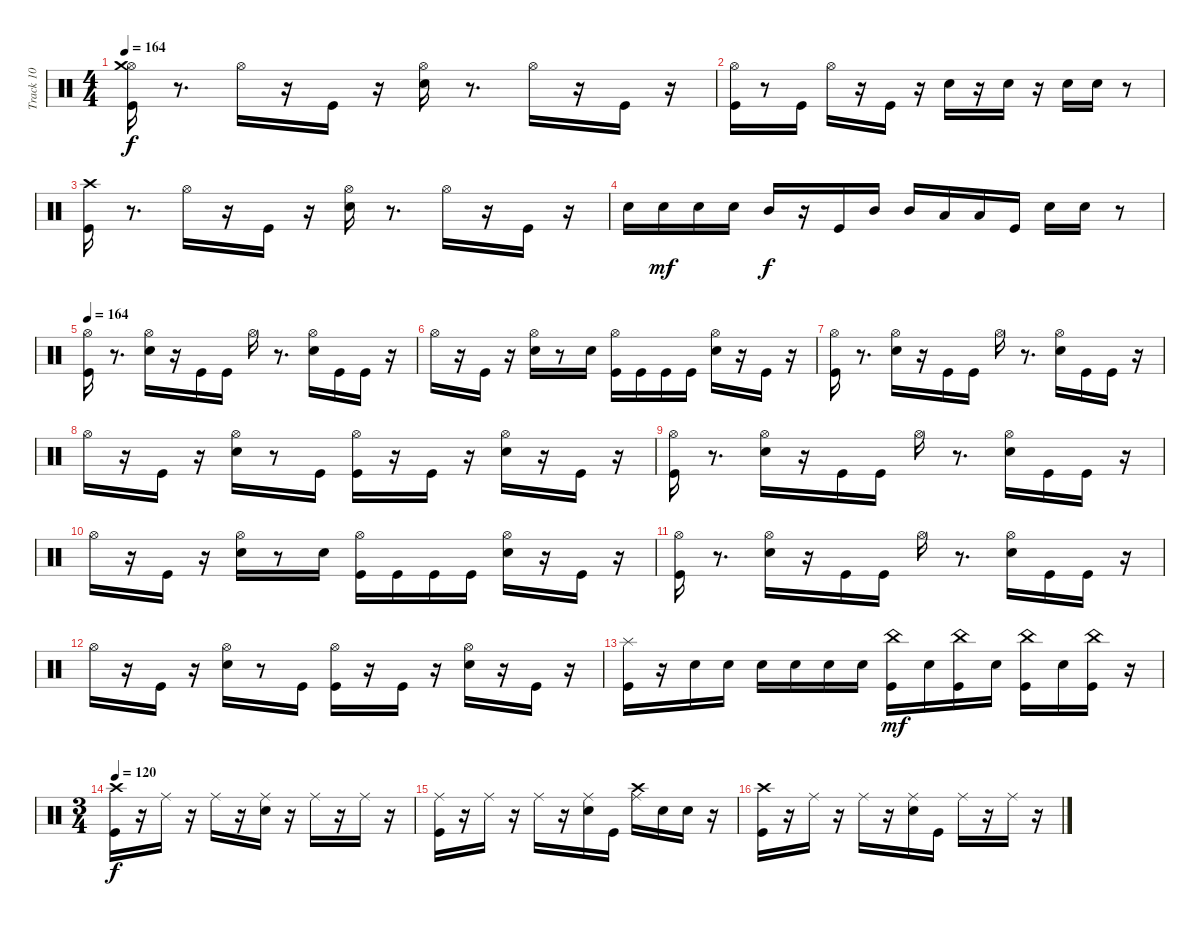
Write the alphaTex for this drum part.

\track ("Track 10" "Track 10") {instrument percussion}
\staff {score}
\articulation defaults
\ts (4 4)
\tempo 164
\clef neutral
\ks c
("Kick (hit)" "Hi-Hat (open)" "Crash medium (hit)").16{dy f} r.8{d} "Hi-Hat (open)".16 r.16 "Kick (hit)".16 r.16 ("Snare (hit) 2" "Hi-Hat (open)").16 r.8{d} "Hi-Hat (open)".16 r.16 "Kick (hit)".16 r.16 |
("Kick (hit)" "Hi-Hat (open)").16 r.8 "Kick (hit)".16 "Hi-Hat (open)".16 r.16 "Kick (hit)".16 r.16 "Snare (hit) 2".16 r.16 "Snare (hit) 2".16 r.16 "Snare (hit) 2".16 "Snare (hit) 2".16 r.8 |
("Kick (hit)" "Crash high (hit)").16 r.8{d} "Hi-Hat (open)".16 r.16 "Kick (hit)".16 r.16 ("Snare (hit) 2" "Hi-Hat (open)").16 r.8{d} "Hi-Hat (open)".16 r.16 "Kick (hit)".16 r.16 |
"Snare (hit) 2".16 "Snare (hit) 2".16{dy mf} "Snare (hit) 2".16 "Snare (hit) 2".16 "Mid Tom (hit)".16{dy f} r.16 "Kick (hit)".16 "Mid Tom (hit)".16 "Mid Tom (hit)".16 "Low Floor Tom (hit)".16 "Low Floor Tom (hit)".16 "Kick (hit)".16 "Snare (hit) 2".16 "Snare (hit) 2".16 r.8 |
\tempo 164
("Kick (hit)" "Hi-Hat (open)").16 r.8{d} ("Snare (hit) 2" "Hi-Hat (open)").16 r.16 "Kick (hit)".16 "Kick (hit)".16 "Hi-Hat (open)".16 r.8{d} ("Snare (hit) 2" "Hi-Hat (open)").16 "Kick (hit)".16 "Kick (hit)".16 r.16 |
"Hi-Hat (open)".16 r.16 "Kick (hit)".16 r.16 ("Snare (hit) 2" "Hi-Hat (open)").16 r.8 "Snare (hit) 2".16 ("Kick (hit)" "Hi-Hat (open)").16 "Kick (hit)".16 "Kick (hit)".16 "Kick (hit)".16 ("Snare (hit) 2" "Hi-Hat (open)").16 r.16 "Kick (hit)".16 r.16 |
("Kick (hit)" "Hi-Hat (open)").16 r.8{d} ("Snare (hit) 2" "Hi-Hat (open)").16 r.16 "Kick (hit)".16 "Kick (hit)".16 "Hi-Hat (open)".16 r.8{d} ("Snare (hit) 2" "Hi-Hat (open)").16 "Kick (hit)".16 "Kick (hit)".16 r.16 |
"Hi-Hat (open)".16 r.16 "Kick (hit)".16 r.16 ("Snare (hit) 2" "Hi-Hat (open)").16 r.8 "Kick (hit)".16 ("Kick (hit)" "Hi-Hat (open)").16 r.16 "Kick (hit)".16 r.16 ("Snare (hit) 2" "Hi-Hat (open)").16 r.16 "Kick (hit)".16 r.16 |
("Kick (hit)" "Hi-Hat (open)").16 r.8{d} ("Snare (hit) 2" "Hi-Hat (open)").16 r.16 "Kick (hit)".16 "Kick (hit)".16 "Hi-Hat (open)".16 r.8{d} ("Snare (hit) 2" "Hi-Hat (open)").16 "Kick (hit)".16 "Kick (hit)".16 r.16 |
"Hi-Hat (open)".16 r.16 "Kick (hit)".16 r.16 ("Snare (hit) 2" "Hi-Hat (open)").16 r.8 "Snare (hit) 2".16 ("Kick (hit)" "Hi-Hat (open)").16 "Kick (hit)".16 "Kick (hit)".16 "Kick (hit)".16 ("Snare (hit) 2" "Hi-Hat (open)").16 r.16 "Kick (hit)".16 r.16 |
("Kick (hit)" "Hi-Hat (open)").16 r.8{d} ("Snare (hit) 2" "Hi-Hat (open)").16 r.16 "Kick (hit)".16 "Kick (hit)".16 "Hi-Hat (open)".16 r.8{d} ("Snare (hit) 2" "Hi-Hat (open)").16 "Kick (hit)".16 "Kick (hit)".16 r.16 |
"Hi-Hat (open)".16 r.16 "Kick (hit)".16 r.16 ("Snare (hit) 2" "Hi-Hat (open)").16 r.8 "Kick (hit)".16 ("Kick (hit)" "Hi-Hat (open)").16 r.16 "Kick (hit)".16 r.16 ("Snare (hit) 2" "Hi-Hat (open)").16 r.16 "Kick (hit)".16 r.16 |
("Kick (hit)" "Splash (hit)").16 r.16 "Snare (hit) 2".16 "Snare (hit) 2".16 "Snare (hit) 2".16 "Snare (hit) 2".16 "Snare (hit) 2".16 "Snare (hit) 2".16 ("Kick (hit)" "China (hit)").16{dy mf} "Snare (hit) 2".16 ("Kick (hit)" "China (hit)").16 "Snare (hit) 2".16 ("Kick (hit)" "China (hit)").16 "Snare (hit) 2".16 ("Kick (hit)" "China (hit)").16 r.16 |
\ts (3 4)
\tempo 120
("Kick (hit)" "Crash high (hit)").16{dy f} r.16 "Ride (middle)".16 r.16 "Ride (middle)".16 r.16 ("Snare (hit) 2" "Ride (middle)").16 r.16 "Ride (middle)".16 r.16 "Ride (middle)".16 r.16 |
("Kick (hit)" "Ride (middle)").16 r.16 "Ride (middle)".16 r.16 "Ride (middle)".16 r.16 ("Snare (hit) 2" "Ride (middle)").16 "Kick (hit)".16 ("Crash high (hit)" "Ride (middle)").16 "Snare (hit) 2".16 "Snare (hit) 2".16 r.16 |
("Kick (hit)" "Crash high (hit)").16 r.16 "Ride (middle)".16 r.16 "Ride (middle)".16 r.16 ("Snare (hit) 2" "Ride (middle)").16 "Kick (hit)".16 "Ride (middle)".16 r.16 "Ride (middle)".16 r.16
